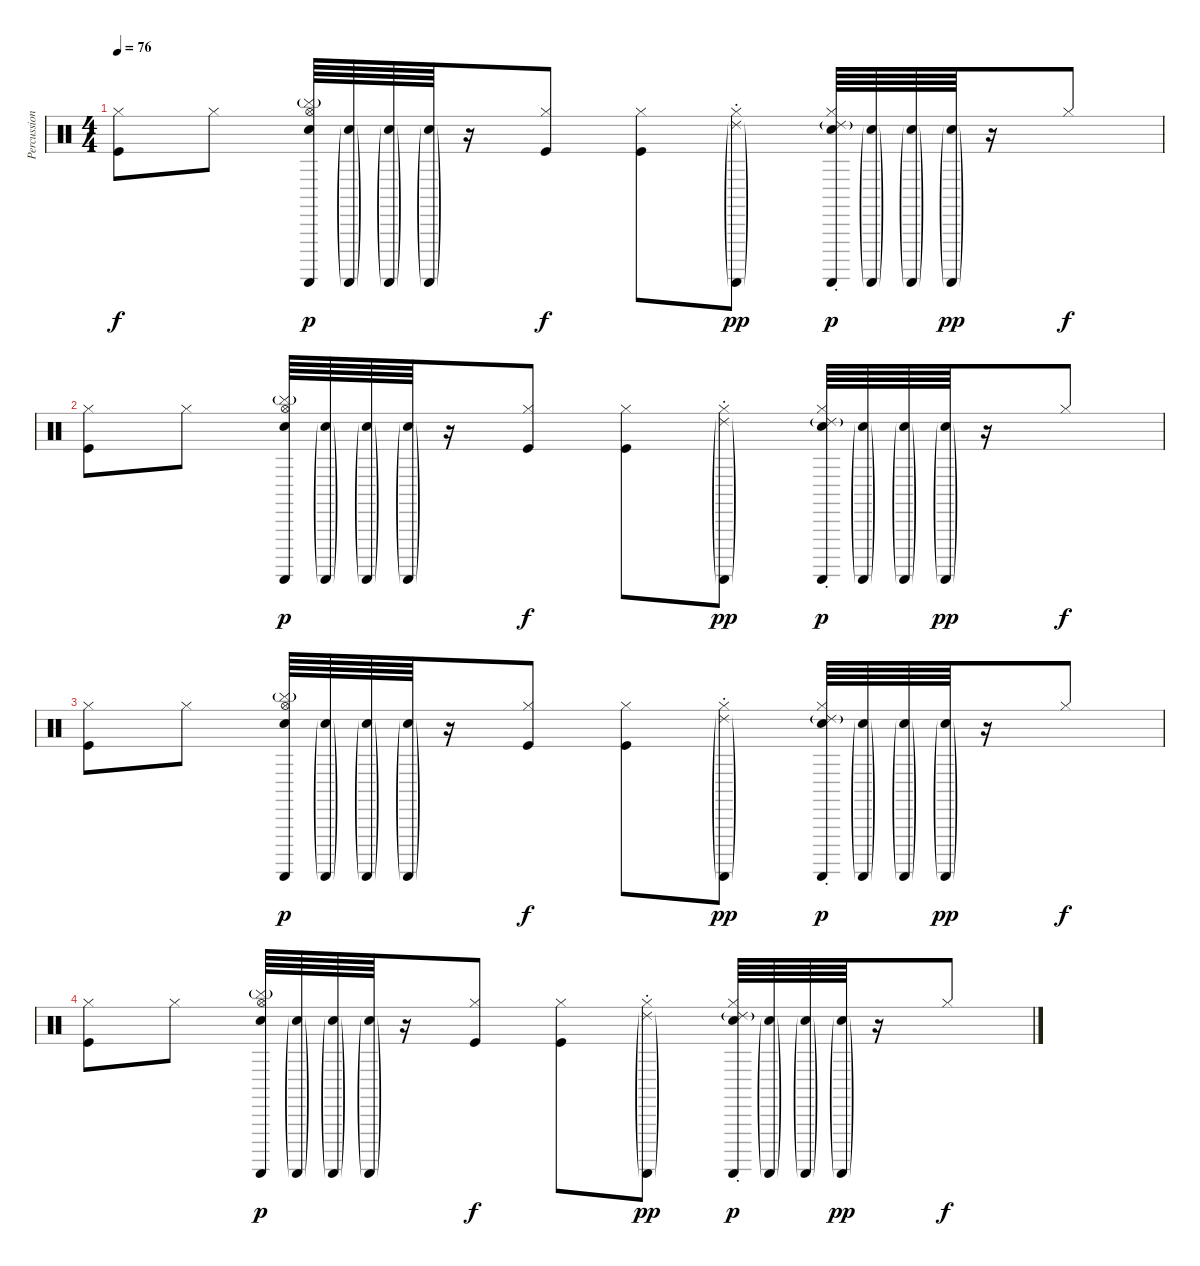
\track ("Percussion" "Percussion") {instrument percussion}
\staff {score}
\articulation defaults
\ts (4 4)
\tempo 76
\clef neutral
\ks c
("Hi-Hat (closed)" "Kick (hit)").8{dy f} "Hi-Hat (closed)".8 ("Hi-Hat (open)" "Cymbal (hit)"{g} "Snare (hit) 2" "Guiro (scrap-return)").64{dy p} ("Snare (hit) 2"{g} "Guiro (scrap-return)"{g}).64 ("Snare (hit) 2"{g} "Guiro (scrap-return)"{g}).64 ("Snare (hit) 2"{g} "Guiro (scrap-return)"{g}).64 r.16 ("Hi-Hat (closed)" "Kick (hit)").8{dy f} ("Hi-Hat (closed)" "Kick (hit)").8 ("Hi-Hat (closed)" "Ride (choke) 2"{g} "Guiro (scrap-return)"{g}).8{dy pp} ("Hi-Hat (closed)" "Ride (choke) 2"{g} "Snare (hit) 2" "Guiro (scrap-return)").64{dy p} ("Snare (hit) 2"{g} "Guiro (scrap-return)"{g}).64 ("Snare (hit) 2"{g} "Guiro (scrap-return)"{g}).64 ("Snare (hit) 2"{g} "Guiro (scrap-return)"{g}).64{dy pp} r.16 "Hi-Hat (closed)".8{dy f} |
("Hi-Hat (closed)" "Kick (hit)").8 "Hi-Hat (closed)".8 ("Hi-Hat (open)" "Cymbal (hit)"{g} "Snare (hit) 2" "Guiro (scrap-return)").64{dy p} ("Snare (hit) 2"{g} "Guiro (scrap-return)"{g}).64 ("Snare (hit) 2"{g} "Guiro (scrap-return)"{g}).64 ("Snare (hit) 2"{g} "Guiro (scrap-return)"{g}).64 r.16 ("Hi-Hat (closed)" "Kick (hit)").8{dy f} ("Hi-Hat (closed)" "Kick (hit)").8 ("Hi-Hat (closed)" "Ride (choke) 2"{g} "Guiro (scrap-return)"{g}).8{dy pp} ("Hi-Hat (closed)" "Ride (choke) 2"{g} "Snare (hit) 2" "Guiro (scrap-return)").64{dy p} ("Snare (hit) 2"{g} "Guiro (scrap-return)"{g}).64 ("Snare (hit) 2"{g} "Guiro (scrap-return)"{g}).64 ("Snare (hit) 2"{g} "Guiro (scrap-return)"{g}).64{dy pp} r.16 "Hi-Hat (closed)".8{dy f} |
("Hi-Hat (closed)" "Kick (hit)").8 "Hi-Hat (closed)".8 ("Hi-Hat (open)" "Cymbal (hit)"{g} "Snare (hit) 2" "Guiro (scrap-return)").64{dy p} ("Snare (hit) 2"{g} "Guiro (scrap-return)"{g}).64 ("Snare (hit) 2"{g} "Guiro (scrap-return)"{g}).64 ("Snare (hit) 2"{g} "Guiro (scrap-return)"{g}).64 r.16 ("Hi-Hat (closed)" "Kick (hit)").8{dy f} ("Hi-Hat (closed)" "Kick (hit)").8 ("Hi-Hat (closed)" "Ride (choke) 2"{g} "Guiro (scrap-return)"{g}).8{dy pp} ("Hi-Hat (closed)" "Ride (choke) 2"{g} "Snare (hit) 2" "Guiro (scrap-return)").64{dy p} ("Snare (hit) 2"{g} "Guiro (scrap-return)"{g}).64 ("Snare (hit) 2"{g} "Guiro (scrap-return)"{g}).64 ("Snare (hit) 2"{g} "Guiro (scrap-return)"{g}).64{dy pp} r.16 "Hi-Hat (closed)".8{dy f} |
("Hi-Hat (closed)" "Kick (hit)").8 "Hi-Hat (closed)".8 ("Hi-Hat (open)" "Cymbal (hit)"{g} "Snare (hit) 2" "Guiro (scrap-return)").64{dy p} ("Snare (hit) 2"{g} "Guiro (scrap-return)"{g}).64 ("Snare (hit) 2"{g} "Guiro (scrap-return)"{g}).64 ("Snare (hit) 2"{g} "Guiro (scrap-return)"{g}).64 r.16 ("Hi-Hat (closed)" "Kick (hit)").8{dy f} ("Hi-Hat (closed)" "Kick (hit)").8 ("Hi-Hat (closed)" "Ride (choke) 2"{g} "Guiro (scrap-return)"{g}).8{dy pp} ("Hi-Hat (closed)" "Ride (choke) 2"{g} "Snare (hit) 2" "Guiro (scrap-return)").64{dy p} ("Snare (hit) 2"{g} "Guiro (scrap-return)"{g}).64 ("Snare (hit) 2"{g} "Guiro (scrap-return)"{g}).64 ("Snare (hit) 2"{g} "Guiro (scrap-return)"{g}).64{dy pp} r.16 "Hi-Hat (closed)".8{dy f}
